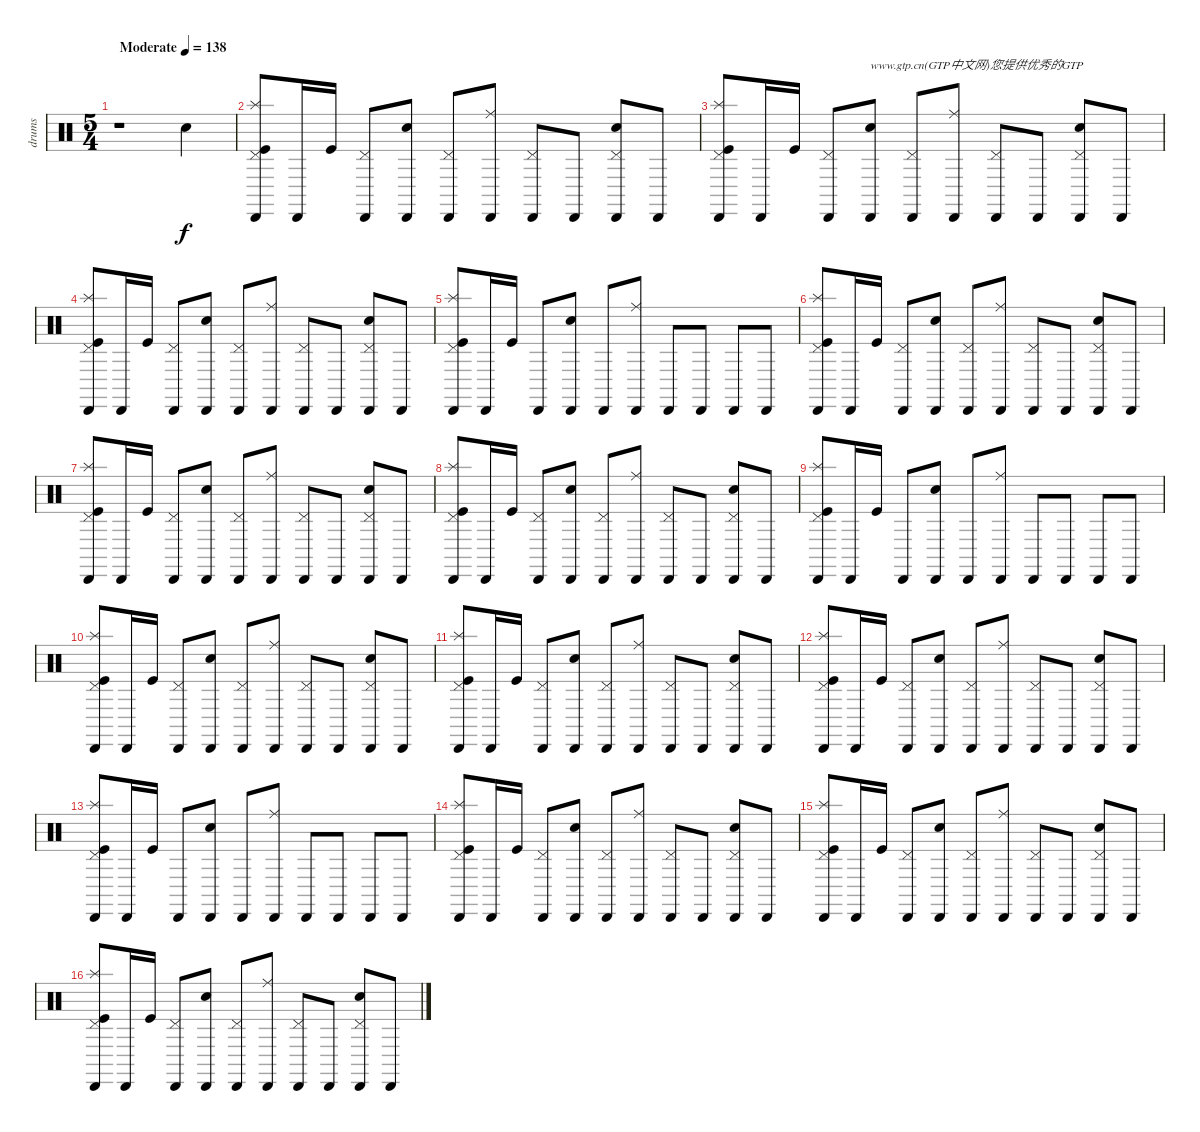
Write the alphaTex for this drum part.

\track ("drums" "drums") {instrument percussion}
\staff {score}
\articulation defaults
\ts (5 4)
\tempo (138 "Moderate")
\clef neutral
\ks c
r.1{dy f} "Snare (hit) 2".4 |
("Splash (hit)" "Pedal Hi-Hat (hit)" "Kick (hit)" "Cabasa (hit)").8 "Cabasa (hit)".16 "Kick (hit)".16 ("Pedal Hi-Hat (hit)" "Cabasa (hit)").8 ("Snare (hit) 2" "Cabasa (hit)").8 ("Pedal Hi-Hat (hit)" "Cabasa (hit)").8 ("Ride (middle)" "Cabasa (hit)").8 ("Pedal Hi-Hat (hit)" "Cabasa (hit)").8 "Cabasa (hit)".8 ("Snare (hit) 2" "Pedal Hi-Hat (hit)" "Cabasa (hit)").8 "Cabasa (hit)".8 |
("Pedal Hi-Hat (hit)" "Splash (hit)" "Kick (hit)" "Cabasa (hit)").8 "Cabasa (hit)".16 "Kick (hit)".16 ("Pedal Hi-Hat (hit)" "Cabasa (hit)").8 ("Snare (hit) 2" "Cabasa (hit)").8{txt "www.gtp.cn(GTP中文网)您提供优秀的GTP"} ("Pedal Hi-Hat (hit)" "Cabasa (hit)").8 ("Ride (middle)" "Cabasa (hit)").8 ("Pedal Hi-Hat (hit)" "Cabasa (hit)").8 "Cabasa (hit)".8 ("Snare (hit) 2" "Pedal Hi-Hat (hit)" "Cabasa (hit)").8 "Cabasa (hit)".8 |
("Kick (hit)" "Pedal Hi-Hat (hit)" "Splash (hit)" "Cabasa (hit)").8 "Cabasa (hit)".16 "Kick (hit)".16 ("Pedal Hi-Hat (hit)" "Cabasa (hit)").8 ("Snare (hit) 2" "Cabasa (hit)").8 ("Pedal Hi-Hat (hit)" "Cabasa (hit)").8 ("Ride (middle)" "Cabasa (hit)").8 ("Pedal Hi-Hat (hit)" "Cabasa (hit)").8 "Cabasa (hit)".8 ("Snare (hit) 2" "Pedal Hi-Hat (hit)" "Cabasa (hit)").8 "Cabasa (hit)".8 |
("Pedal Hi-Hat (hit)" "Splash (hit)" "Kick (hit)" "Cabasa (hit)").8 "Cabasa (hit)".16 "Kick (hit)".16 "Cabasa (hit)".8 ("Snare (hit) 2" "Cabasa (hit)").8 "Cabasa (hit)".8 ("Ride (middle)" "Cabasa (hit)").8 "Cabasa (hit)".8 "Cabasa (hit)".8 "Cabasa (hit)".8 "Cabasa (hit)".8 |
("Kick (hit)" "Pedal Hi-Hat (hit)" "Splash (hit)" "Cabasa (hit)").8 "Cabasa (hit)".16 "Kick (hit)".16 ("Pedal Hi-Hat (hit)" "Cabasa (hit)").8 ("Snare (hit) 2" "Cabasa (hit)").8 ("Pedal Hi-Hat (hit)" "Cabasa (hit)").8 ("Ride (middle)" "Cabasa (hit)").8 ("Pedal Hi-Hat (hit)" "Cabasa (hit)").8 "Cabasa (hit)".8 ("Snare (hit) 2" "Pedal Hi-Hat (hit)" "Cabasa (hit)").8 "Cabasa (hit)".8 |
("Pedal Hi-Hat (hit)" "Splash (hit)" "Kick (hit)" "Cabasa (hit)").8 "Cabasa (hit)".16 "Kick (hit)".16 ("Pedal Hi-Hat (hit)" "Cabasa (hit)").8 ("Snare (hit) 2" "Cabasa (hit)").8 ("Pedal Hi-Hat (hit)" "Cabasa (hit)").8 ("Ride (middle)" "Cabasa (hit)").8 ("Pedal Hi-Hat (hit)" "Cabasa (hit)").8 "Cabasa (hit)".8 ("Snare (hit) 2" "Pedal Hi-Hat (hit)" "Cabasa (hit)").8 "Cabasa (hit)".8 |
("Kick (hit)" "Pedal Hi-Hat (hit)" "Splash (hit)" "Cabasa (hit)").8 "Cabasa (hit)".16 "Kick (hit)".16 ("Pedal Hi-Hat (hit)" "Cabasa (hit)").8 ("Snare (hit) 2" "Cabasa (hit)").8 ("Pedal Hi-Hat (hit)" "Cabasa (hit)").8 ("Ride (middle)" "Cabasa (hit)").8 ("Pedal Hi-Hat (hit)" "Cabasa (hit)").8 "Cabasa (hit)".8 ("Snare (hit) 2" "Pedal Hi-Hat (hit)" "Cabasa (hit)").8 "Cabasa (hit)".8 |
("Pedal Hi-Hat (hit)" "Splash (hit)" "Kick (hit)" "Cabasa (hit)").8 "Cabasa (hit)".16 "Kick (hit)".16 "Cabasa (hit)".8 ("Snare (hit) 2" "Cabasa (hit)").8 "Cabasa (hit)".8 ("Ride (middle)" "Cabasa (hit)").8 "Cabasa (hit)".8 "Cabasa (hit)".8 "Cabasa (hit)".8 "Cabasa (hit)".8 |
("Kick (hit)" "Pedal Hi-Hat (hit)" "Splash (hit)" "Cabasa (hit)").8 "Cabasa (hit)".16 "Kick (hit)".16 ("Pedal Hi-Hat (hit)" "Cabasa (hit)").8 ("Snare (hit) 2" "Cabasa (hit)").8 ("Pedal Hi-Hat (hit)" "Cabasa (hit)").8 ("Ride (middle)" "Cabasa (hit)").8 ("Pedal Hi-Hat (hit)" "Cabasa (hit)").8 "Cabasa (hit)".8 ("Snare (hit) 2" "Pedal Hi-Hat (hit)" "Cabasa (hit)").8 "Cabasa (hit)".8 |
("Pedal Hi-Hat (hit)" "Splash (hit)" "Kick (hit)" "Cabasa (hit)").8 "Cabasa (hit)".16 "Kick (hit)".16 ("Pedal Hi-Hat (hit)" "Cabasa (hit)").8 ("Snare (hit) 2" "Cabasa (hit)").8 ("Pedal Hi-Hat (hit)" "Cabasa (hit)").8 ("Ride (middle)" "Cabasa (hit)").8 ("Pedal Hi-Hat (hit)" "Cabasa (hit)").8 "Cabasa (hit)".8 ("Snare (hit) 2" "Pedal Hi-Hat (hit)" "Cabasa (hit)").8 "Cabasa (hit)".8 |
("Kick (hit)" "Pedal Hi-Hat (hit)" "Splash (hit)" "Cabasa (hit)").8 "Cabasa (hit)".16 "Kick (hit)".16 ("Pedal Hi-Hat (hit)" "Cabasa (hit)").8 ("Snare (hit) 2" "Cabasa (hit)").8 ("Pedal Hi-Hat (hit)" "Cabasa (hit)").8 ("Ride (middle)" "Cabasa (hit)").8 ("Pedal Hi-Hat (hit)" "Cabasa (hit)").8 "Cabasa (hit)".8 ("Snare (hit) 2" "Pedal Hi-Hat (hit)" "Cabasa (hit)").8 "Cabasa (hit)".8 |
("Pedal Hi-Hat (hit)" "Splash (hit)" "Kick (hit)" "Cabasa (hit)").8 "Cabasa (hit)".16 "Kick (hit)".16 "Cabasa (hit)".8 ("Snare (hit) 2" "Cabasa (hit)").8 "Cabasa (hit)".8 ("Ride (middle)" "Cabasa (hit)").8 "Cabasa (hit)".8 "Cabasa (hit)".8 "Cabasa (hit)".8 "Cabasa (hit)".8 |
("Kick (hit)" "Pedal Hi-Hat (hit)" "Splash (hit)" "Cabasa (hit)").8 "Cabasa (hit)".16 "Kick (hit)".16 ("Pedal Hi-Hat (hit)" "Cabasa (hit)").8 ("Snare (hit) 2" "Cabasa (hit)").8 ("Pedal Hi-Hat (hit)" "Cabasa (hit)").8 ("Ride (middle)" "Cabasa (hit)").8 ("Pedal Hi-Hat (hit)" "Cabasa (hit)").8 "Cabasa (hit)".8 ("Snare (hit) 2" "Pedal Hi-Hat (hit)" "Cabasa (hit)").8 "Cabasa (hit)".8 |
("Pedal Hi-Hat (hit)" "Splash (hit)" "Kick (hit)" "Cabasa (hit)").8 "Cabasa (hit)".16 "Kick (hit)".16 ("Pedal Hi-Hat (hit)" "Cabasa (hit)").8 ("Snare (hit) 2" "Cabasa (hit)").8 ("Pedal Hi-Hat (hit)" "Cabasa (hit)").8 ("Ride (middle)" "Cabasa (hit)").8 ("Pedal Hi-Hat (hit)" "Cabasa (hit)").8 "Cabasa (hit)".8 ("Snare (hit) 2" "Pedal Hi-Hat (hit)" "Cabasa (hit)").8 "Cabasa (hit)".8 |
("Kick (hit)" "Pedal Hi-Hat (hit)" "Splash (hit)" "Cabasa (hit)").8 "Cabasa (hit)".16 "Kick (hit)".16 ("Pedal Hi-Hat (hit)" "Cabasa (hit)").8 ("Snare (hit) 2" "Cabasa (hit)").8 ("Pedal Hi-Hat (hit)" "Cabasa (hit)").8 ("Ride (middle)" "Cabasa (hit)").8 ("Pedal Hi-Hat (hit)" "Cabasa (hit)").8 "Cabasa (hit)".8 ("Snare (hit) 2" "Pedal Hi-Hat (hit)" "Cabasa (hit)").8 "Cabasa (hit)".8
